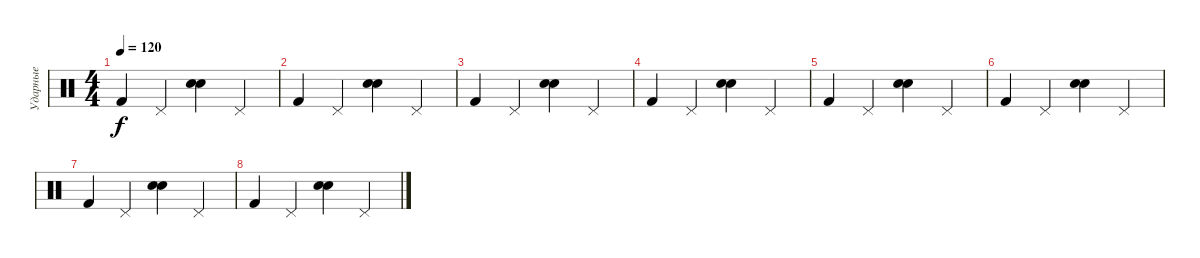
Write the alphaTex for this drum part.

\track ("Ударные" "Ударные") {instrument percussion}
\staff {score}
\articulation defaults
\ts (4 4)
\tempo 120
\clef neutral
\ks c "Kick (hit) 2".4{dy f} "Pedal Hi-Hat (hit)".4
("Snare (hit) 2" "Electric Snare (hit)").4 "Pedal Hi-Hat (hit)".4 |
"Kick (hit) 2".4 "Pedal Hi-Hat (hit)".4 ("Snare (hit) 2" "Electric Snare (hit)").4 "Pedal Hi-Hat (hit)".4 |
"Kick (hit) 2".4 "Pedal Hi-Hat (hit)".4 ("Snare (hit) 2" "Electric Snare (hit)").4 "Pedal Hi-Hat (hit)".4 |
"Kick (hit) 2".4 "Pedal Hi-Hat (hit)".4 ("Snare (hit) 2" "Electric Snare (hit)").4 "Pedal Hi-Hat (hit)".4 |
"Kick (hit) 2".4 "Pedal Hi-Hat (hit)".4 ("Snare (hit) 2" "Electric Snare (hit)").4 "Pedal Hi-Hat (hit)".4 |
"Kick (hit) 2".4 "Pedal Hi-Hat (hit)".4 ("Snare (hit) 2" "Electric Snare (hit)").4 "Pedal Hi-Hat (hit)".4 |
"Kick (hit) 2".4 "Pedal Hi-Hat (hit)".4 ("Snare (hit) 2" "Electric Snare (hit)").4 "Pedal Hi-Hat (hit)".4 |
"Kick (hit) 2".4 "Pedal Hi-Hat (hit)".4 ("Snare (hit) 2" "Electric Snare (hit)").4 "Pedal Hi-Hat (hit)".4
